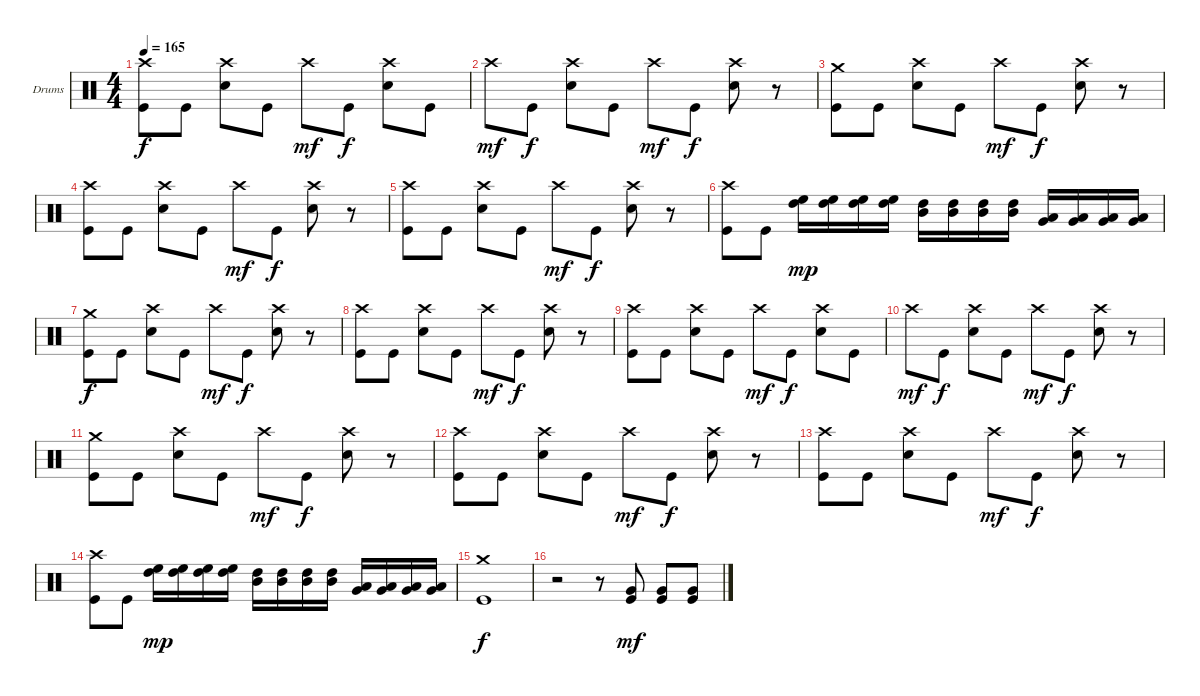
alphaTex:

\bracketExtendMode groupsimilarinstruments
\firstSystemTrackNameOrientation horizontal
\otherSystemsTrackNameOrientation horizontal
\track ("Drumkit Midi" "Drums") {instrument percussion}
\staff {score}
\articulation defaults
\ts (4 4)
\tempo 165
\clef neutral
\ks c
("Kick (hit)" "Crash high (hit)").8{dy f} "Kick (hit)".8 ("Snare (hit) 2" "Crash high (hit)").8 "Kick (hit)".8 "Crash high (hit)".8{dy mf} "Kick (hit)".8{dy f} ("Snare (hit) 2" "Crash high (hit)").8 "Kick (hit)".8 |
"Crash high (hit)".8{dy mf} "Kick (hit)".8{dy f} ("Snare (hit) 2" "Crash high (hit)").8 "Kick (hit)".8 "Crash high (hit)".8{dy mf} "Kick (hit)".8{dy f} ("Snare (hit) 2" "Crash high (hit)").8 r.8 |
("Kick (hit)" "Crash medium (hit)").8 "Kick (hit)".8 ("Snare (hit) 2" "Crash high (hit)").8 "Kick (hit)".8 "Crash high (hit)".8{dy mf} "Kick (hit)".8{dy f} ("Snare (hit) 2" "Crash high (hit)").8 r.8 |
("Kick (hit)" "Crash high (hit)").8 "Kick (hit)".8 ("Snare (hit) 2" "Crash high (hit)").8 "Kick (hit)".8 "Crash high (hit)".8{dy mf} "Kick (hit)".8{dy f} ("Snare (hit) 2" "Crash high (hit)").8 r.8 |
("Kick (hit)" "Crash high (hit)").8 "Kick (hit)".8 ("Snare (hit) 2" "Crash high (hit)").8 "Kick (hit)".8 "Crash high (hit)".8{dy mf} "Kick (hit)".8{dy f} ("Snare (hit) 2" "Crash high (hit)").8 r.8 |
("Kick (hit)" "Crash high (hit)").8 "Kick (hit)".8 ("High Floor Tom (hit)" "High Tom (hit)").16{dy mp} ("High Floor Tom (hit)" "High Tom (hit)").16 ("High Floor Tom (hit)" "High Tom (hit)").16 ("High Floor Tom (hit)" "High Tom (hit)").16 ("High Tom (hit)" "Mid Tom (hit)").16 ("High Tom (hit)" "Mid Tom (hit)").16 ("High Tom (hit)" "Mid Tom (hit)").16 ("High Tom (hit)" "Mid Tom (hit)").16 ("Low Tom (hit)" "Very Low Tom (hit)").16 ("Low Tom (hit)" "Very Low Tom (hit)").16 ("Low Tom (hit)" "Very Low Tom (hit)").16 ("Low Tom (hit)" "Very Low Tom (hit)").16 |
("Kick (hit)" "Crash medium (hit)").8{dy f} "Kick (hit)".8 ("Snare (hit) 2" "Crash high (hit)").8 "Kick (hit)".8 "Crash high (hit)".8{dy mf} "Kick (hit)".8{dy f} ("Snare (hit) 2" "Crash high (hit)").8 r.8 |
("Kick (hit)" "Crash high (hit)").8 "Kick (hit)".8 ("Snare (hit) 2" "Crash high (hit)").8 "Kick (hit)".8 "Crash high (hit)".8{dy mf} "Kick (hit)".8{dy f} ("Snare (hit) 2" "Crash high (hit)").8 r.8 |
("Kick (hit)" "Crash high (hit)").8 "Kick (hit)".8 ("Snare (hit) 2" "Crash high (hit)").8 "Kick (hit)".8 "Crash high (hit)".8{dy mf} "Kick (hit)".8{dy f} ("Snare (hit) 2" "Crash high (hit)").8 "Kick (hit)".8 |
"Crash high (hit)".8{dy mf} "Kick (hit)".8{dy f} ("Snare (hit) 2" "Crash high (hit)").8 "Kick (hit)".8 "Crash high (hit)".8{dy mf} "Kick (hit)".8{dy f} ("Snare (hit) 2" "Crash high (hit)").8 r.8 |
("Kick (hit)" "Crash medium (hit)").8 "Kick (hit)".8 ("Snare (hit) 2" "Crash high (hit)").8 "Kick (hit)".8 "Crash high (hit)".8{dy mf} "Kick (hit)".8{dy f} ("Snare (hit) 2" "Crash high (hit)").8 r.8 |
("Kick (hit)" "Crash high (hit)").8 "Kick (hit)".8 ("Snare (hit) 2" "Crash high (hit)").8 "Kick (hit)".8 "Crash high (hit)".8{dy mf} "Kick (hit)".8{dy f} ("Snare (hit) 2" "Crash high (hit)").8 r.8 |
("Kick (hit)" "Crash high (hit)").8 "Kick (hit)".8 ("Snare (hit) 2" "Crash high (hit)").8 "Kick (hit)".8 "Crash high (hit)".8{dy mf} "Kick (hit)".8{dy f} ("Snare (hit) 2" "Crash high (hit)").8 r.8 |
("Kick (hit)" "Crash high (hit)").8 "Kick (hit)".8 ("High Floor Tom (hit)" "High Tom (hit)").16{dy mp} ("High Floor Tom (hit)" "High Tom (hit)").16 ("High Floor Tom (hit)" "High Tom (hit)").16 ("High Floor Tom (hit)" "High Tom (hit)").16 ("High Tom (hit)" "Mid Tom (hit)").16 ("High Tom (hit)" "Mid Tom (hit)").16 ("High Tom (hit)" "Mid Tom (hit)").16 ("High Tom (hit)" "Mid Tom (hit)").16 ("Low Tom (hit)" "Very Low Tom (hit)").16 ("Low Tom (hit)" "Very Low Tom (hit)").16 ("Low Tom (hit)" "Very Low Tom (hit)").16 ("Low Tom (hit)" "Very Low Tom (hit)").16 |
("Kick (hit)" "Crash medium (hit)").1{dy f} |
r.2 r.8 ("Kick (hit)" "Very Low Tom (hit)").8{dy mf} ("Kick (hit)" "Very Low Tom (hit)").8 ("Kick (hit)" "Very Low Tom (hit)").8
